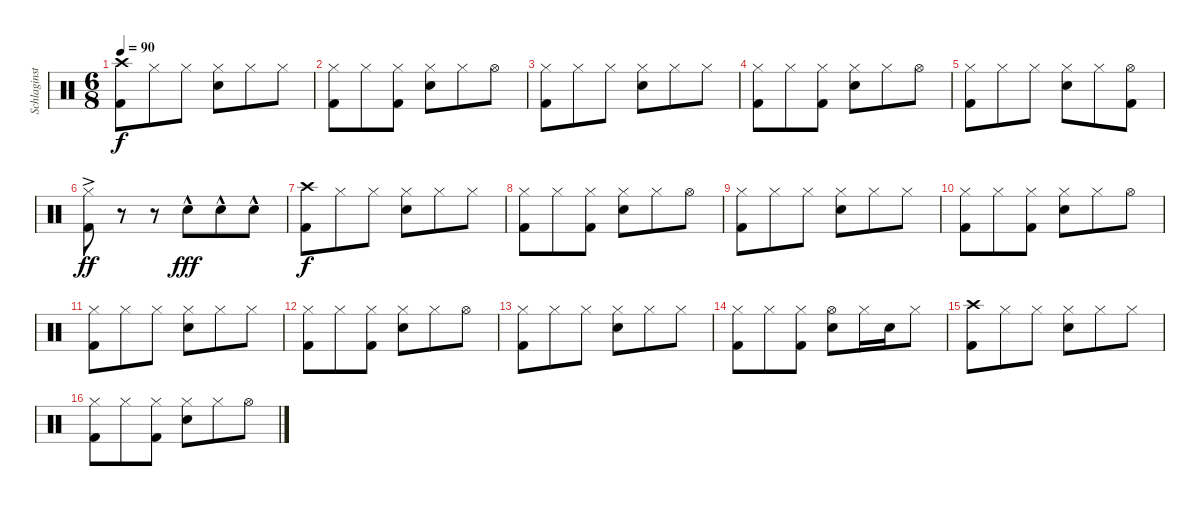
\track ("Schlaginstrumente - Auswahl" "Schlaginst") {instrument percussion}
\staff {score}
\articulation defaults
\ts (6 8)
\tempo 90
\clef neutral
\ks c
("Crash high (hit)" "Kick (hit) 2").8{dy f} "Hi-Hat (closed)".8 "Hi-Hat (closed)".8 ("Hi-Hat (closed)" "Snare (hit) 2").8 "Hi-Hat (closed)".8 "Hi-Hat (closed)".8 |
("Hi-Hat (closed)" "Kick (hit) 2").8 "Hi-Hat (closed)".8 ("Hi-Hat (closed)" "Kick (hit) 2").8 ("Hi-Hat (closed)" "Snare (hit) 2").8 "Hi-Hat (closed)".8 "Hi-Hat (open)".8 |
("Hi-Hat (closed)" "Kick (hit) 2").8 "Hi-Hat (closed)".8 "Hi-Hat (closed)".8 ("Hi-Hat (closed)" "Snare (hit) 2").8 "Hi-Hat (closed)".8 "Hi-Hat (closed)".8 |
("Hi-Hat (closed)" "Kick (hit) 2").8 "Hi-Hat (closed)".8 ("Hi-Hat (closed)" "Kick (hit) 2").8 ("Hi-Hat (closed)" "Snare (hit) 2").8 "Hi-Hat (closed)".8 "Hi-Hat (open)".8 |
("Hi-Hat (closed)" "Kick (hit) 2").8 "Hi-Hat (closed)".8 "Hi-Hat (closed)".8 ("Hi-Hat (closed)" "Snare (hit) 2").8 "Hi-Hat (closed)".8 ("Hi-Hat (open)" "Kick (hit) 2").8 |
("Hi-Hat (closed)"{ac} "Kick (hit) 2").8{dy ff} r.8 r.8 "Snare (hit) 2"{hac}.8{dy fff} "Snare (hit) 2"{hac}.8 "Snare (hit) 2"{hac}.8 |
("Crash high (hit)" "Kick (hit) 2").8{dy f} "Hi-Hat (closed)".8 "Hi-Hat (closed)".8 ("Hi-Hat (closed)" "Snare (hit) 2").8 "Hi-Hat (closed)".8 "Hi-Hat (closed)".8 |
("Hi-Hat (closed)" "Kick (hit) 2").8 "Hi-Hat (closed)".8 ("Hi-Hat (closed)" "Kick (hit) 2").8 ("Hi-Hat (closed)" "Snare (hit) 2").8 "Hi-Hat (closed)".8 "Hi-Hat (open)".8 |
("Hi-Hat (closed)" "Kick (hit) 2").8 "Hi-Hat (closed)".8 "Hi-Hat (closed)".8 ("Hi-Hat (closed)" "Snare (hit) 2").8 "Hi-Hat (closed)".8 "Hi-Hat (closed)".8 |
("Hi-Hat (closed)" "Kick (hit) 2").8 "Hi-Hat (closed)".8 ("Hi-Hat (closed)" "Kick (hit) 2").8 ("Hi-Hat (closed)" "Snare (hit) 2").8 "Hi-Hat (closed)".8 "Hi-Hat (open)".8 |
("Hi-Hat (closed)" "Kick (hit) 2").8 "Hi-Hat (closed)".8 "Hi-Hat (closed)".8 ("Hi-Hat (closed)" "Snare (hit) 2").8 "Hi-Hat (closed)".8 "Hi-Hat (closed)".8 |
("Hi-Hat (closed)" "Kick (hit) 2").8 "Hi-Hat (closed)".8 ("Hi-Hat (closed)" "Kick (hit) 2").8 ("Hi-Hat (closed)" "Snare (hit) 2").8 "Hi-Hat (closed)".8 "Hi-Hat (open)".8 |
("Hi-Hat (closed)" "Kick (hit) 2").8 "Hi-Hat (closed)".8 "Hi-Hat (closed)".8 ("Hi-Hat (closed)" "Snare (hit) 2").8 "Hi-Hat (closed)".8 "Hi-Hat (closed)".8 |
("Hi-Hat (closed)" "Kick (hit) 2").8 "Hi-Hat (closed)".8 ("Hi-Hat (closed)" "Kick (hit) 2").8 ("Hi-Hat (open)" "Snare (hit) 2").8 "Hi-Hat (closed)".16 "Snare (hit) 2".16 "Hi-Hat (closed)".8 |
("Crash high (hit)" "Kick (hit) 2").8 "Hi-Hat (closed)".8 "Hi-Hat (closed)".8 ("Hi-Hat (closed)" "Snare (hit) 2").8 "Hi-Hat (closed)".8 "Hi-Hat (closed)".8 |
("Hi-Hat (closed)" "Kick (hit) 2").8 "Hi-Hat (closed)".8 ("Hi-Hat (closed)" "Kick (hit) 2").8 ("Hi-Hat (closed)" "Snare (hit) 2").8 "Hi-Hat (closed)".8 "Hi-Hat (open)".8
